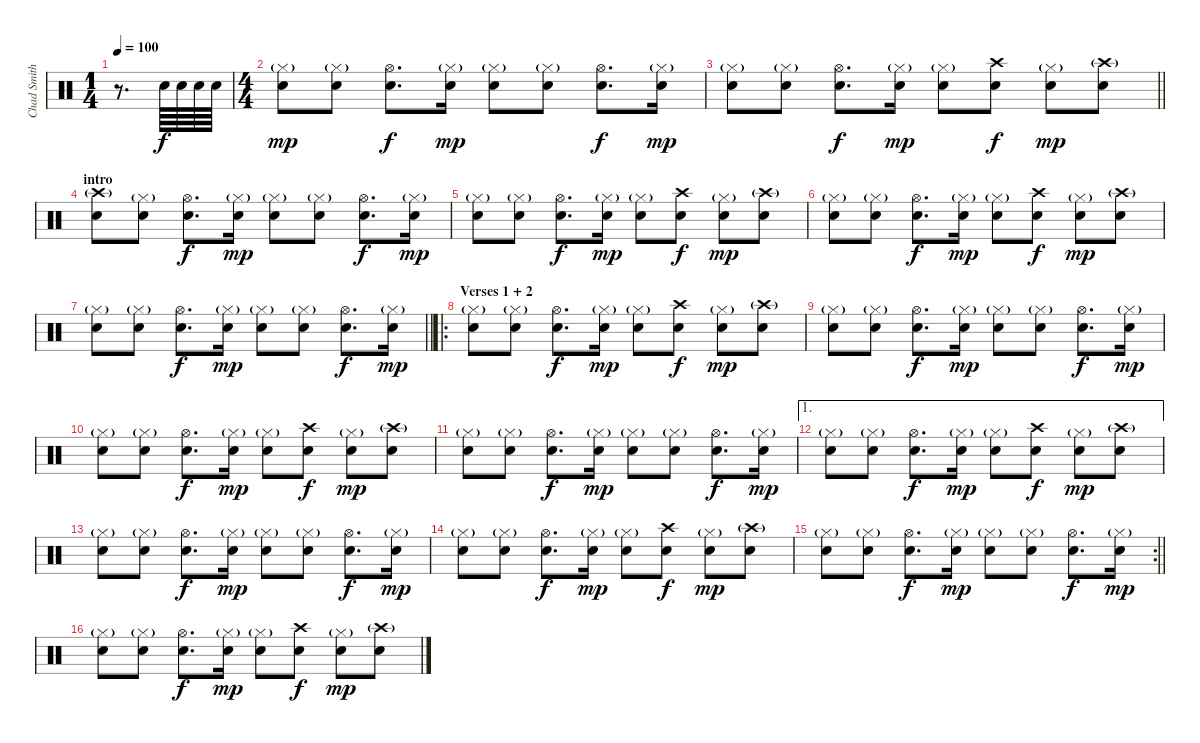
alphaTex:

\track ("Chad Smith - Drums" "Chad Smith") {instrument percussion}
\staff {score}
\articulation defaults
\ts (1 4)
\tempo 100
\clef neutral
\ks c
r.8{d dy f} "Snare (hit) 2".64 "Snare (hit) 2".64 "Snare (hit) 2".64 "Snare (hit) 2".64 |
\ts (4 4)
("Hi-Hat (closed)"{g} "Snare (hit) 2").8{dy mp} ("Hi-Hat (closed)"{g} "Snare (hit) 2").8 ("Hi-Hat (open)" "Snare (hit) 2").8{d dy f} ("Hi-Hat (closed)"{g} "Snare (hit) 2").16{dy mp} ("Hi-Hat (closed)"{g} "Snare (hit) 2").8 ("Hi-Hat (closed)"{g} "Snare (hit) 2").8 ("Hi-Hat (open)" "Snare (hit) 2").8{d dy f} ("Hi-Hat (closed)"{g} "Snare (hit) 2").16{dy mp} |
\barLineRight lightlight
("Hi-Hat (closed)"{g} "Snare (hit) 2").8 ("Hi-Hat (closed)"{g} "Snare (hit) 2").8 ("Hi-Hat (open)" "Snare (hit) 2").8{d dy f} ("Hi-Hat (closed)"{g} "Snare (hit) 2").16{dy mp} ("Hi-Hat (closed)"{g} "Snare (hit) 2").8 ("Crash high (hit)" "Snare (hit) 2").8{dy f} ("Hi-Hat (closed)"{g} "Snare (hit) 2").8{dy mp} ("Crash high (hit)"{g} "Snare (hit) 2").8 |
\section ("" "intro")
("Crash high (hit)"{g} "Snare (hit) 2").8 ("Hi-Hat (closed)"{g} "Snare (hit) 2").8 ("Hi-Hat (open)" "Snare (hit) 2").8{d dy f} ("Hi-Hat (closed)"{g} "Snare (hit) 2").16{dy mp} ("Hi-Hat (closed)"{g} "Snare (hit) 2").8 ("Hi-Hat (closed)"{g} "Snare (hit) 2").8 ("Hi-Hat (open)" "Snare (hit) 2").8{d dy f} ("Hi-Hat (closed)"{g} "Snare (hit) 2").16{dy mp} |
("Hi-Hat (closed)"{g} "Snare (hit) 2").8 ("Hi-Hat (closed)"{g} "Snare (hit) 2").8 ("Hi-Hat (open)" "Snare (hit) 2").8{d dy f} ("Hi-Hat (closed)"{g} "Snare (hit) 2").16{dy mp} ("Hi-Hat (closed)"{g} "Snare (hit) 2").8 ("Crash high (hit)" "Snare (hit) 2").8{dy f} ("Hi-Hat (closed)"{g} "Snare (hit) 2").8{dy mp} ("Crash high (hit)"{g} "Snare (hit) 2").8 |
("Hi-Hat (closed)"{g} "Snare (hit) 2").8 ("Hi-Hat (closed)"{g} "Snare (hit) 2").8 ("Hi-Hat (open)" "Snare (hit) 2").8{d dy f} ("Hi-Hat (closed)"{g} "Snare (hit) 2").16{dy mp} ("Hi-Hat (closed)"{g} "Snare (hit) 2").8 ("Crash high (hit)" "Snare (hit) 2").8{dy f} ("Hi-Hat (closed)"{g} "Snare (hit) 2").8{dy mp} ("Crash high (hit)"{g} "Snare (hit) 2").8 |
\barLineRight lightlight
("Hi-Hat (closed)"{g} "Snare (hit) 2").8 ("Hi-Hat (closed)"{g} "Snare (hit) 2").8 ("Hi-Hat (open)" "Snare (hit) 2").8{d dy f} ("Hi-Hat (closed)"{g} "Snare (hit) 2").16{dy mp} ("Hi-Hat (closed)"{g} "Snare (hit) 2").8 ("Hi-Hat (closed)"{g} "Snare (hit) 2").8 ("Hi-Hat (open)" "Snare (hit) 2").8{d dy f} ("Hi-Hat (closed)"{g} "Snare (hit) 2").16{dy mp} |
\ro
\section ("" "Verses 1 + 2")
("Hi-Hat (closed)"{g} "Snare (hit) 2").8 ("Hi-Hat (closed)"{g} "Snare (hit) 2").8 ("Hi-Hat (open)" "Snare (hit) 2").8{d dy f} ("Hi-Hat (closed)"{g} "Snare (hit) 2").16{dy mp} ("Hi-Hat (closed)"{g} "Snare (hit) 2").8 ("Crash high (hit)" "Snare (hit) 2").8{dy f} ("Hi-Hat (closed)"{g} "Snare (hit) 2").8{dy mp} ("Crash high (hit)"{g} "Snare (hit) 2").8 |
("Hi-Hat (closed)"{g} "Snare (hit) 2").8 ("Hi-Hat (closed)"{g} "Snare (hit) 2").8 ("Hi-Hat (open)" "Snare (hit) 2").8{d dy f} ("Hi-Hat (closed)"{g} "Snare (hit) 2").16{dy mp} ("Hi-Hat (closed)"{g} "Snare (hit) 2").8 ("Hi-Hat (closed)"{g} "Snare (hit) 2").8 ("Hi-Hat (open)" "Snare (hit) 2").8{d dy f} ("Hi-Hat (closed)"{g} "Snare (hit) 2").16{dy mp} |
("Hi-Hat (closed)"{g} "Snare (hit) 2").8 ("Hi-Hat (closed)"{g} "Snare (hit) 2").8 ("Hi-Hat (open)" "Snare (hit) 2").8{d dy f} ("Hi-Hat (closed)"{g} "Snare (hit) 2").16{dy mp} ("Hi-Hat (closed)"{g} "Snare (hit) 2").8 ("Crash high (hit)" "Snare (hit) 2").8{dy f} ("Hi-Hat (closed)"{g} "Snare (hit) 2").8{dy mp} ("Crash high (hit)"{g} "Snare (hit) 2").8 |
("Hi-Hat (closed)"{g} "Snare (hit) 2").8 ("Hi-Hat (closed)"{g} "Snare (hit) 2").8 ("Hi-Hat (open)" "Snare (hit) 2").8{d dy f} ("Hi-Hat (closed)"{g} "Snare (hit) 2").16{dy mp} ("Hi-Hat (closed)"{g} "Snare (hit) 2").8 ("Hi-Hat (closed)"{g} "Snare (hit) 2").8 ("Hi-Hat (open)" "Snare (hit) 2").8{d dy f} ("Hi-Hat (closed)"{g} "Snare (hit) 2").16{dy mp} |
\ae 1
("Hi-Hat (closed)"{g} "Snare (hit) 2").8 ("Hi-Hat (closed)"{g} "Snare (hit) 2").8 ("Hi-Hat (open)" "Snare (hit) 2").8{d dy f} ("Hi-Hat (closed)"{g} "Snare (hit) 2").16{dy mp} ("Hi-Hat (closed)"{g} "Snare (hit) 2").8 ("Crash high (hit)" "Snare (hit) 2").8{dy f} ("Hi-Hat (closed)"{g} "Snare (hit) 2").8{dy mp} ("Crash high (hit)"{g} "Snare (hit) 2").8 |
("Hi-Hat (closed)"{g} "Snare (hit) 2").8 ("Hi-Hat (closed)"{g} "Snare (hit) 2").8 ("Hi-Hat (open)" "Snare (hit) 2").8{d dy f} ("Hi-Hat (closed)"{g} "Snare (hit) 2").16{dy mp} ("Hi-Hat (closed)"{g} "Snare (hit) 2").8 ("Hi-Hat (closed)"{g} "Snare (hit) 2").8 ("Hi-Hat (open)" "Snare (hit) 2").8{d dy f} ("Hi-Hat (closed)"{g} "Snare (hit) 2").16{dy mp} |
("Hi-Hat (closed)"{g} "Snare (hit) 2").8 ("Hi-Hat (closed)"{g} "Snare (hit) 2").8 ("Hi-Hat (open)" "Snare (hit) 2").8{d dy f} ("Hi-Hat (closed)"{g} "Snare (hit) 2").16{dy mp} ("Hi-Hat (closed)"{g} "Snare (hit) 2").8 ("Crash high (hit)" "Snare (hit) 2").8{dy f} ("Hi-Hat (closed)"{g} "Snare (hit) 2").8{dy mp} ("Crash high (hit)"{g} "Snare (hit) 2").8 |
\rc 2
\barLineRight lightlight
("Hi-Hat (closed)"{g} "Snare (hit) 2").8 ("Hi-Hat (closed)"{g} "Snare (hit) 2").8 ("Hi-Hat (open)" "Snare (hit) 2").8{d dy f} ("Hi-Hat (closed)"{g} "Snare (hit) 2").16{dy mp} ("Hi-Hat (closed)"{g} "Snare (hit) 2").8 ("Hi-Hat (closed)"{g} "Snare (hit) 2").8 ("Hi-Hat (open)" "Snare (hit) 2").8{d dy f} ("Hi-Hat (closed)"{g} "Snare (hit) 2").16{dy mp} |
("Hi-Hat (closed)"{g} "Snare (hit) 2").8 ("Hi-Hat (closed)"{g} "Snare (hit) 2").8 ("Hi-Hat (open)" "Snare (hit) 2").8{d dy f} ("Hi-Hat (closed)"{g} "Snare (hit) 2").16{dy mp} ("Hi-Hat (closed)"{g} "Snare (hit) 2").8 ("Crash high (hit)" "Snare (hit) 2").8{dy f} ("Hi-Hat (closed)"{g} "Snare (hit) 2").8{dy mp} ("Crash high (hit)"{g} "Snare (hit) 2").8
